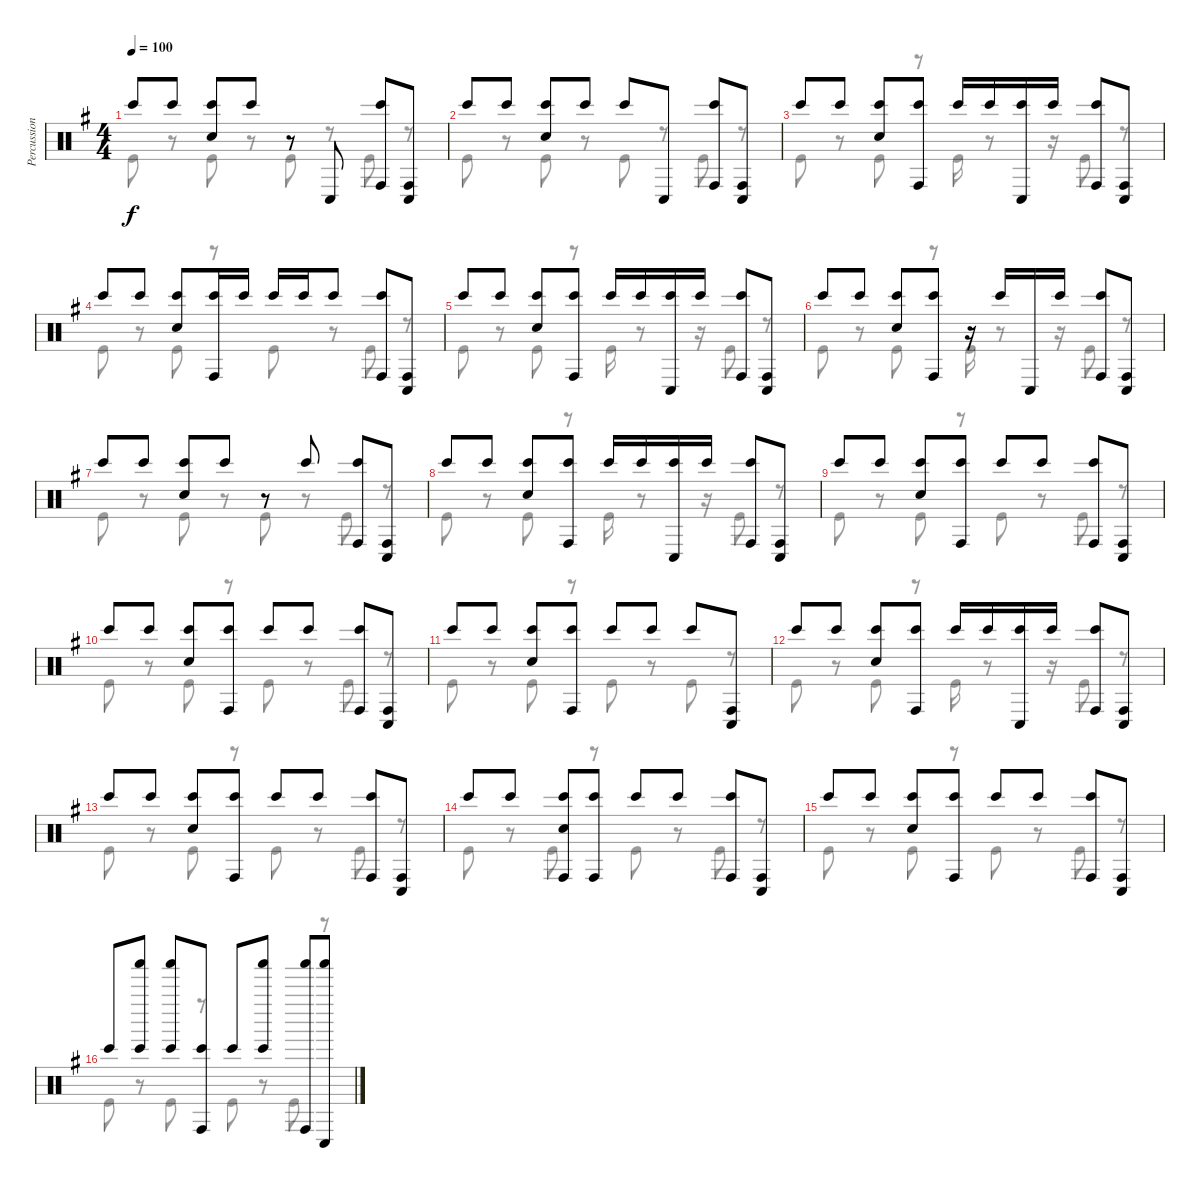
\track ("Percussion 1" "Percussion") {solo instrument percussion}
\staff {score}
\articulation defaults
\voice
\ts (4 4)
\tempo 100
\clef neutral
\ks g "Bongo High (hit)".8{dy f} "Bongo High (hit)".8
("Electric Snare (hit)" "Bongo High (hit)").8 "Bongo High (hit)".8 r.8 "Conga low (hit)".8 ("Bongo High (hit)" "Conga high (hit)").8 ("Conga high (hit)" "Conga low (hit)").8 |
"Bongo High (hit)".8 "Bongo High (hit)".8 ("Electric Snare (hit)" "Bongo High (hit)").8 "Bongo High (hit)".8 "Bongo High (hit)".8 "Conga low (hit)".8 ("Bongo High (hit)" "Conga high (hit)").8 ("Conga low (hit)" "Conga high (hit)").8 |
"Bongo High (hit)".8 "Bongo High (hit)".8 ("Electric Snare (hit)" "Bongo High (hit)").8 ("Bongo High (hit)" "Conga high (hit)").8 "Bongo High (hit)".16 "Bongo High (hit)".16 ("Bongo High (hit)" "Conga low (hit)").16 "Bongo High (hit)".16 ("Bongo High (hit)" "Conga high (hit)").8 ("Conga high (hit)" "Conga low (hit)").8 |
"Bongo High (hit)".8 "Bongo High (hit)".8 ("Electric Snare (hit)" "Bongo High (hit)").8 ("Bongo High (hit)" "Conga high (hit)").16 "Bongo High (hit)".16 "Bongo High (hit)".16 "Bongo High (hit)".16 "Bongo High (hit)".8 ("Bongo High (hit)" "Conga high (hit)").8 ("Conga low (hit)" "Conga high (hit)").8 |
"Bongo High (hit)".8 "Bongo High (hit)".8 ("Electric Snare (hit)" "Bongo High (hit)").8 ("Bongo High (hit)" "Conga high (hit)").8 "Bongo High (hit)".16 "Bongo High (hit)".16 ("Bongo High (hit)" "Conga low (hit)").16 "Bongo High (hit)".16 ("Bongo High (hit)" "Conga high (hit)").8 ("Conga low (hit)" "Conga high (hit)").8 |
"Bongo High (hit)".8 "Bongo High (hit)".8 ("Electric Snare (hit)" "Bongo High (hit)").8 ("Bongo High (hit)" "Conga high (hit)").8 r.16 "Bongo High (hit)".16 "Conga low (hit)".16 "Bongo High (hit)".16 ("Bongo High (hit)" "Conga high (hit)").8 ("Conga high (hit)" "Conga low (hit)").8 |
"Bongo High (hit)".8 "Bongo High (hit)".8 ("Electric Snare (hit)" "Bongo High (hit)").8 "Bongo High (hit)".8 r.8 "Bongo High (hit)".8 ("Bongo High (hit)" "Conga high (hit)").8 ("Conga low (hit)" "Conga high (hit)").8 |
"Bongo High (hit)".8 "Bongo High (hit)".8 ("Electric Snare (hit)" "Bongo High (hit)").8 ("Bongo High (hit)" "Conga high (hit)").8 "Bongo High (hit)".16 "Bongo High (hit)".16 ("Bongo High (hit)" "Conga low (hit)").16 "Bongo High (hit)".16 ("Bongo High (hit)" "Conga high (hit)").8 ("Conga high (hit)" "Conga low (hit)").8 |
"Bongo High (hit)".8 "Bongo High (hit)".8 ("Electric Snare (hit)" "Bongo High (hit)").8 ("Bongo High (hit)" "Conga high (hit)").8 "Bongo High (hit)".8 "Bongo High (hit)".8 ("Bongo High (hit)" "Conga high (hit)").8 ("Conga low (hit)" "Conga high (hit)").8 |
"Bongo High (hit)".8 "Bongo High (hit)".8 ("Electric Snare (hit)" "Bongo High (hit)").8 ("Bongo High (hit)" "Conga high (hit)").8 "Bongo High (hit)".8 "Bongo High (hit)".8 ("Bongo High (hit)" "Conga high (hit)").8 ("Conga low (hit)" "Conga high (hit)").8 |
"Bongo High (hit)".8 "Bongo High (hit)".8 ("Electric Snare (hit)" "Bongo High (hit)").8 ("Bongo High (hit)" "Conga high (hit)").8 "Bongo High (hit)".8 "Bongo High (hit)".8 "Bongo High (hit)".8 ("Conga high (hit)" "Conga low (hit)").8 |
"Bongo High (hit)".8 "Bongo High (hit)".8 ("Electric Snare (hit)" "Bongo High (hit)").8 ("Bongo High (hit)" "Conga high (hit)").8 "Bongo High (hit)".16 "Bongo High (hit)".16 ("Bongo High (hit)" "Conga low (hit)").16 "Bongo High (hit)".16 ("Bongo High (hit)" "Conga high (hit)").8 ("Conga high (hit)" "Conga low (hit)").8 |
"Bongo High (hit)".8 "Bongo High (hit)".8 ("Electric Snare (hit)" "Bongo High (hit)").8 ("Bongo High (hit)" "Conga high (hit)").8 "Bongo High (hit)".8 "Bongo High (hit)".8 ("Bongo High (hit)" "Conga high (hit)").8 ("Conga low (hit)" "Conga high (hit)").8 |
"Bongo High (hit)".8 "Bongo High (hit)".8 ("Electric Snare (hit)" "Bongo High (hit)" "Conga high (hit)").8 ("Bongo High (hit)" "Conga high (hit)").8 "Bongo High (hit)".8 "Bongo High (hit)".8 ("Bongo High (hit)" "Conga high (hit)").8 ("Conga low (hit)" "Conga high (hit)").8 |
"Bongo High (hit)".8 "Bongo High (hit)".8 ("Electric Snare (hit)" "Bongo High (hit)").8 ("Bongo High (hit)" "Conga high (hit)").8 "Bongo High (hit)".8 "Bongo High (hit)".8 ("Bongo High (hit)" "Conga high (hit)").8 ("Conga high (hit)" "Conga low (hit)").8 |
"Bongo High (hit)".8 ("Bongo High (hit)" "Shaker (hit)").8 ("Shaker (hit)" "Bongo High (hit)").8 ("Bongo High (hit)" "Conga high (hit)").8 "Bongo High (hit)".8 ("Bongo High (hit)" "Shaker (hit)").8 ("Shaker (hit)" "Conga high (hit)").8 ("Shaker (hit)" "Conga low (hit)").8
\voice
\clef neutral
\ottava regular
\simile none
\ks g "Kick (hit)".8{dy f}
r.8 "Kick (hit)".8 r.8 "Kick (hit)".8 r.8 "Kick (hit)".8 r.8 |
"Kick (hit)".8 r.8 "Kick (hit)".8 r.8 "Kick (hit)".8 r.8 "Kick (hit)".8 r.8 |
"Kick (hit)".8 r.8 "Kick (hit)".8 r.8 "Kick (hit)".16 r.8 r.16 "Kick (hit)".8 r.8 |
"Kick (hit)".8 r.8 "Kick (hit)".8 r.8 "Kick (hit)".8 r.8 "Kick (hit)".8 r.8 |
"Kick (hit)".8 r.8 "Kick (hit)".8 r.8 "Kick (hit)".16 r.8 r.16 "Kick (hit)".8 r.8 |
"Kick (hit)".8 r.8 "Kick (hit)".8 r.8 "Kick (hit)".16 r.8 r.16 "Kick (hit)".8 r.8 |
"Kick (hit)".8 r.8 "Kick (hit)".8 r.8 "Kick (hit)".8 r.8 "Kick (hit)".8 r.8 |
"Kick (hit)".8 r.8 "Kick (hit)".8 r.8 "Kick (hit)".16 r.8 r.16 "Kick (hit)".8 r.8 |
"Kick (hit)".8 r.8 "Kick (hit)".8 r.8 "Kick (hit)".8 r.8 "Kick (hit)".8 r.8 |
"Kick (hit)".8 r.8 "Kick (hit)".8 r.8 "Kick (hit)".8 r.8 "Kick (hit)".8 r.8 |
"Kick (hit)".8 r.8 "Kick (hit)".8 r.8 "Kick (hit)".8 r.8 "Kick (hit)".8 r.8 |
"Kick (hit)".8 r.8 "Kick (hit)".8 r.8 "Kick (hit)".16 r.8 r.16 "Kick (hit)".8 r.8 |
"Kick (hit)".8 r.8 "Kick (hit)".8 r.8 "Kick (hit)".8 r.8 "Kick (hit)".8 r.8 |
"Kick (hit)".8 r.8 "Kick (hit)".8 r.8 "Kick (hit)".8 r.8 "Kick (hit)".8 r.8 |
"Kick (hit)".8 r.8 "Kick (hit)".8 r.8 "Kick (hit)".8 r.8 "Kick (hit)".8 r.8 |
"Kick (hit)".8 r.8 "Kick (hit)".8 r.8 "Kick (hit)".8 r.8 "Kick (hit)".8 r.8
